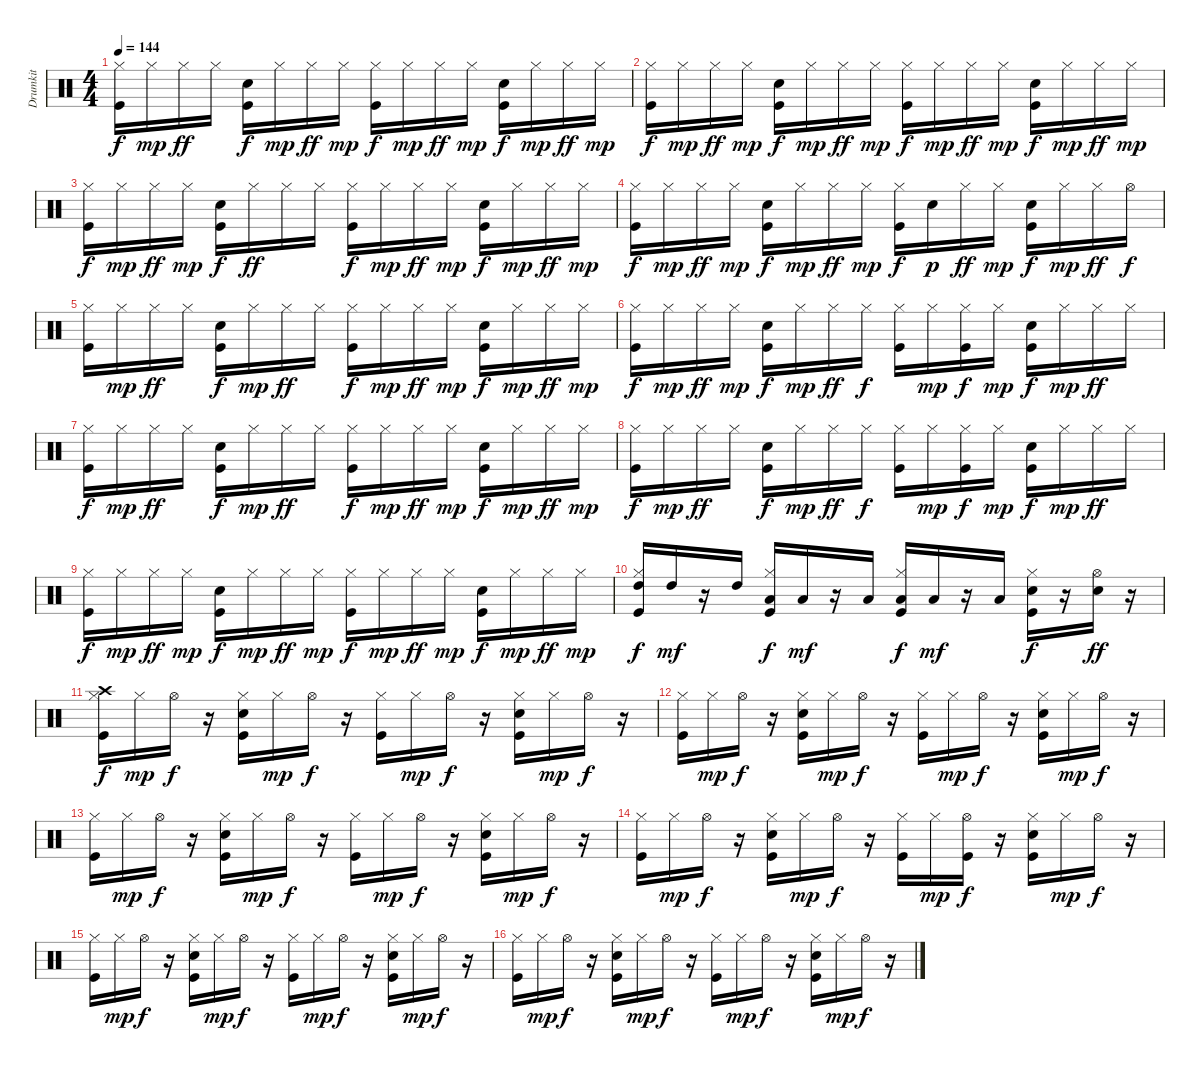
\track ("Drumkit" "Drumkit") {instrument percussion}
\staff {score}
\articulation defaults
\ts (4 4)
\tempo 144
\clef neutral
\ks c
("Kick (hit)" "Hi-Hat (closed)").16{dy f} "Hi-Hat (closed)".16{dy mp} "Hi-Hat (closed)".16{dy ff} "Hi-Hat (closed)".16 ("Kick (hit)" "Snare (hit) 2").16{dy f} "Hi-Hat (closed)".16{dy mp} "Hi-Hat (closed)".16{dy ff} "Hi-Hat (closed)".16{dy mp} ("Kick (hit)" "Hi-Hat (closed)").16{dy f} "Hi-Hat (closed)".16{dy mp} "Hi-Hat (closed)".16{dy ff} "Hi-Hat (closed)".16{dy mp} ("Kick (hit)" "Snare (hit) 2").16{dy f} "Hi-Hat (closed)".16{dy mp} "Hi-Hat (closed)".16{dy ff} "Hi-Hat (closed)".16{dy mp} |
("Kick (hit)" "Hi-Hat (closed)").16{dy f} "Hi-Hat (closed)".16{dy mp} "Hi-Hat (closed)".16{dy ff} "Hi-Hat (closed)".16{dy mp} ("Kick (hit)" "Snare (hit) 2").16{dy f} "Hi-Hat (closed)".16{dy mp} "Hi-Hat (closed)".16{dy ff} "Hi-Hat (closed)".16{dy mp} ("Kick (hit)" "Hi-Hat (closed)").16{dy f} "Hi-Hat (closed)".16{dy mp} "Hi-Hat (closed)".16{dy ff} "Hi-Hat (closed)".16{dy mp} ("Kick (hit)" "Snare (hit) 2").16{dy f} "Hi-Hat (closed)".16{dy mp} "Hi-Hat (closed)".16{dy ff} "Hi-Hat (closed)".16{dy mp} |
("Kick (hit)" "Hi-Hat (closed)").16{dy f} "Hi-Hat (closed)".16{dy mp} "Hi-Hat (closed)".16{dy ff} "Hi-Hat (closed)".16{dy mp} ("Kick (hit)" "Snare (hit) 2").16{dy f} "Hi-Hat (closed)".16{dy ff} "Hi-Hat (closed)".16 "Hi-Hat (closed)".16 ("Kick (hit)" "Hi-Hat (closed)").16{dy f} "Hi-Hat (closed)".16{dy mp} "Hi-Hat (closed)".16{dy ff} "Hi-Hat (closed)".16{dy mp} ("Kick (hit)" "Snare (hit) 2").16{dy f} "Hi-Hat (closed)".16{dy mp} "Hi-Hat (closed)".16{dy ff} "Hi-Hat (closed)".16{dy mp} |
("Kick (hit)" "Hi-Hat (closed)").16{dy f} "Hi-Hat (closed)".16{dy mp} "Hi-Hat (closed)".16{dy ff} "Hi-Hat (closed)".16{dy mp} ("Kick (hit)" "Snare (hit) 2").16{dy f} "Hi-Hat (closed)".16{dy mp} "Hi-Hat (closed)".16{dy ff} "Hi-Hat (closed)".16{dy mp} ("Kick (hit)" "Hi-Hat (closed)").16{dy f} "Snare (hit) 2".16{dy p} "Hi-Hat (closed)".16{dy ff} "Hi-Hat (closed)".16{dy mp} ("Kick (hit)" "Snare (hit) 2").16{dy f} "Hi-Hat (closed)".16{dy mp} "Hi-Hat (closed)".16{dy ff} "Hi-Hat (open)".16{dy f} |
("Kick (hit)" "Hi-Hat (closed)").16 "Hi-Hat (closed)".16{dy mp} "Hi-Hat (closed)".16{dy ff} "Hi-Hat (closed)".16 ("Kick (hit)" "Snare (hit) 2").16{dy f} "Hi-Hat (closed)".16{dy mp} "Hi-Hat (closed)".16{dy ff} "Hi-Hat (closed)".16 ("Kick (hit)" "Hi-Hat (closed)").16{dy f} "Hi-Hat (closed)".16{dy mp} "Hi-Hat (closed)".16{dy ff} "Hi-Hat (closed)".16{dy mp} ("Kick (hit)" "Snare (hit) 2").16{dy f} "Hi-Hat (closed)".16{dy mp} "Hi-Hat (closed)".16{dy ff} "Hi-Hat (closed)".16{dy mp} |
("Kick (hit)" "Hi-Hat (closed)").16{dy f} "Hi-Hat (closed)".16{dy mp} "Hi-Hat (closed)".16{dy ff} "Hi-Hat (closed)".16{dy mp} ("Kick (hit)" "Snare (hit) 2").16{dy f} "Hi-Hat (closed)".16{dy mp} "Hi-Hat (closed)".16{dy ff} "Hi-Hat (closed)".16{dy f} ("Kick (hit)" "Hi-Hat (closed)").16 "Hi-Hat (closed)".16{dy mp} ("Kick (hit)" "Hi-Hat (closed)").16{dy f} "Hi-Hat (closed)".16{dy mp} ("Kick (hit)" "Snare (hit) 2").16{dy f} "Hi-Hat (closed)".16{dy mp} "Hi-Hat (closed)".16{dy ff} "Hi-Hat (closed)".16 |
("Kick (hit)" "Hi-Hat (closed)").16{dy f} "Hi-Hat (closed)".16{dy mp} "Hi-Hat (closed)".16{dy ff} "Hi-Hat (closed)".16 ("Kick (hit)" "Snare (hit) 2").16{dy f} "Hi-Hat (closed)".16{dy mp} "Hi-Hat (closed)".16{dy ff} "Hi-Hat (closed)".16 ("Kick (hit)" "Hi-Hat (closed)").16{dy f} "Hi-Hat (closed)".16{dy mp} "Hi-Hat (closed)".16{dy ff} "Hi-Hat (closed)".16{dy mp} ("Kick (hit)" "Snare (hit) 2").16{dy f} "Hi-Hat (closed)".16{dy mp} "Hi-Hat (closed)".16{dy ff} "Hi-Hat (closed)".16{dy mp} |
("Kick (hit)" "Hi-Hat (closed)").16{dy f} "Hi-Hat (closed)".16{dy mp} "Hi-Hat (closed)".16{dy ff} "Hi-Hat (closed)".16 ("Kick (hit)" "Snare (hit) 2").16{dy f} "Hi-Hat (closed)".16{dy mp} "Hi-Hat (closed)".16{dy ff} "Hi-Hat (closed)".16{dy f} ("Kick (hit)" "Hi-Hat (closed)").16 "Hi-Hat (closed)".16{dy mp} ("Kick (hit)" "Hi-Hat (closed)").16{dy f} "Hi-Hat (closed)".16{dy mp} ("Kick (hit)" "Snare (hit) 2").16{dy f} "Hi-Hat (closed)".16{dy mp} "Hi-Hat (closed)".16{dy ff} "Hi-Hat (closed)".16 |
("Kick (hit)" "Hi-Hat (closed)").16{dy f} "Hi-Hat (closed)".16{dy mp} "Hi-Hat (closed)".16{dy ff} "Hi-Hat (closed)".16{dy mp} ("Kick (hit)" "Snare (hit) 2").16{dy f} "Hi-Hat (closed)".16{dy mp} "Hi-Hat (closed)".16{dy ff} "Hi-Hat (closed)".16{dy mp} ("Kick (hit)" "Hi-Hat (closed)").16{dy f} "Hi-Hat (closed)".16{dy mp} "Hi-Hat (closed)".16{dy ff} "Hi-Hat (closed)".16{dy mp} ("Kick (hit)" "Snare (hit) 2").16{dy f} "Hi-Hat (closed)".16{dy mp} "Hi-Hat (closed)".16{dy ff} "Hi-Hat (closed)".16{dy mp} |
("Kick (hit)" "Hi-Hat (closed)" "High Tom (hit)").16{dy f} "High Tom (hit)".16{dy mf} r.16 "High Tom (hit)".16 ("Kick (hit)" "Hi-Hat (closed)" "Low Tom (hit)").16{dy f} "Low Tom (hit)".16{dy mf} r.16 "Low Tom (hit)".16 ("Kick (hit)" "Low Floor Tom (hit)" "Hi-Hat (closed)").16{dy f} "Low Floor Tom (hit)".16{dy mf} r.16 "Low Floor Tom (hit)".16 ("Kick (hit)" "Snare (hit) 2" "Hi-Hat (closed)").16{dy f} r.16 ("Snare (hit) 2" "Hi-Hat (open)").16{dy ff} r.16 |
("Kick (hit)" "Hi-Hat (closed)" "Crash high (hit)").16{dy f} "Hi-Hat (closed)".16{dy mp} "Hi-Hat (open)".16{dy f} r.16 ("Kick (hit)" "Snare (hit) 2" "Hi-Hat (closed)").16 "Hi-Hat (closed)".16{dy mp} "Hi-Hat (open)".16{dy f} r.16 ("Kick (hit)" "Hi-Hat (closed)").16 "Hi-Hat (closed)".16{dy mp} "Hi-Hat (open)".16{dy f} r.16 ("Kick (hit)" "Snare (hit) 2" "Hi-Hat (closed)").16 "Hi-Hat (closed)".16{dy mp} "Hi-Hat (open)".16{dy f} r.16 |
("Kick (hit)" "Hi-Hat (closed)").16 "Hi-Hat (closed)".16{dy mp} "Hi-Hat (open)".16{dy f} r.16 ("Kick (hit)" "Snare (hit) 2" "Hi-Hat (closed)").16 "Hi-Hat (closed)".16{dy mp} "Hi-Hat (open)".16{dy f} r.16 ("Kick (hit)" "Hi-Hat (closed)").16 "Hi-Hat (closed)".16{dy mp} "Hi-Hat (open)".16{dy f} r.16 ("Kick (hit)" "Snare (hit) 2" "Hi-Hat (closed)").16 "Hi-Hat (closed)".16{dy mp} "Hi-Hat (open)".16{dy f} r.16 |
("Kick (hit)" "Hi-Hat (closed)").16 "Hi-Hat (closed)".16{dy mp} "Hi-Hat (open)".16{dy f} r.16 ("Kick (hit)" "Snare (hit) 2" "Hi-Hat (closed)").16 "Hi-Hat (closed)".16{dy mp} "Hi-Hat (open)".16{dy f} r.16 ("Kick (hit)" "Hi-Hat (closed)").16 "Hi-Hat (closed)".16{dy mp} "Hi-Hat (open)".16{dy f} r.16 ("Kick (hit)" "Snare (hit) 2" "Hi-Hat (closed)").16 "Hi-Hat (closed)".16{dy mp} "Hi-Hat (open)".16{dy f} r.16 |
("Kick (hit)" "Hi-Hat (closed)").16 "Hi-Hat (closed)".16{dy mp} "Hi-Hat (open)".16{dy f} r.16 ("Kick (hit)" "Snare (hit) 2" "Hi-Hat (closed)").16 "Hi-Hat (closed)".16{dy mp} "Hi-Hat (open)".16{dy f} r.16 ("Kick (hit)" "Hi-Hat (closed)").16 "Hi-Hat (closed)".16{dy mp} ("Kick (hit)" "Hi-Hat (open)").16{dy f} r.16 ("Kick (hit)" "Snare (hit) 2" "Hi-Hat (closed)").16 "Hi-Hat (closed)".16{dy mp} "Hi-Hat (open)".16{dy f} r.16 |
("Kick (hit)" "Hi-Hat (closed)").16 "Hi-Hat (closed)".16{dy mp} "Hi-Hat (open)".16{dy f} r.16 ("Kick (hit)" "Snare (hit) 2" "Hi-Hat (closed)").16 "Hi-Hat (closed)".16{dy mp} "Hi-Hat (open)".16{dy f} r.16 ("Kick (hit)" "Hi-Hat (closed)").16 "Hi-Hat (closed)".16{dy mp} "Hi-Hat (open)".16{dy f} r.16 ("Kick (hit)" "Snare (hit) 2" "Hi-Hat (closed)").16 "Hi-Hat (closed)".16{dy mp} "Hi-Hat (open)".16{dy f} r.16 |
("Kick (hit)" "Hi-Hat (closed)").16 "Hi-Hat (closed)".16{dy mp} "Hi-Hat (open)".16{dy f} r.16 ("Kick (hit)" "Snare (hit) 2" "Hi-Hat (closed)").16 "Hi-Hat (closed)".16{dy mp} "Hi-Hat (open)".16{dy f} r.16 ("Kick (hit)" "Hi-Hat (closed)").16 "Hi-Hat (closed)".16{dy mp} "Hi-Hat (open)".16{dy f} r.16 ("Kick (hit)" "Snare (hit) 2" "Hi-Hat (closed)").16 "Hi-Hat (closed)".16{dy mp} "Hi-Hat (open)".16{dy f} r.16
